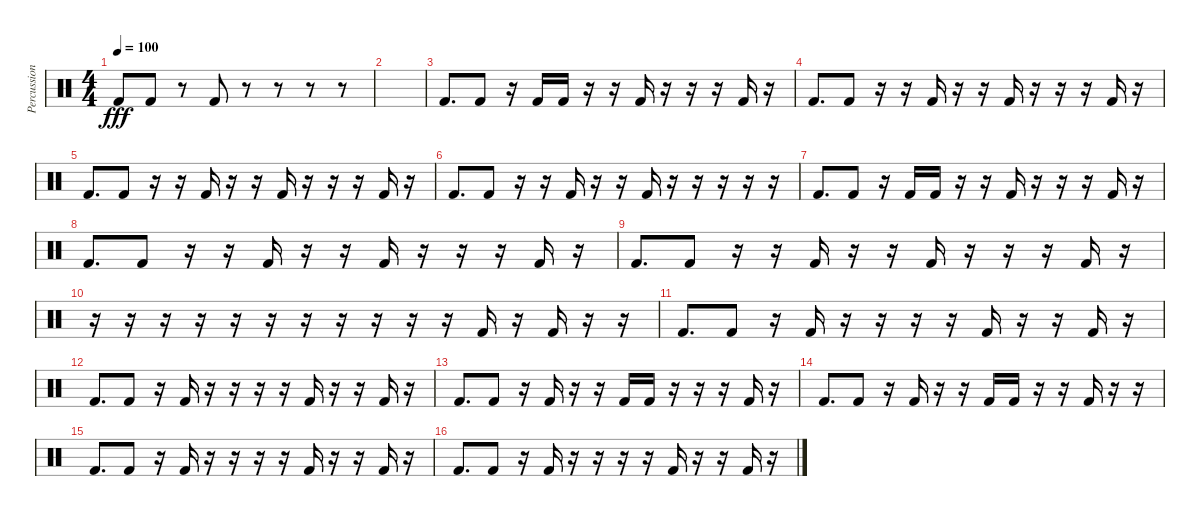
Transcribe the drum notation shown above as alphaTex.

\track ("Percussion" "Percussion") {instrument percussion}
\staff {score}
\articulation defaults
\ts (4 4)
\tempo 100
\clef neutral
\ks c "Kick (hit) 2".8{dy fff} "Kick (hit) 2".8
r.8 "Kick (hit) 2".8 r.8 r.8 r.8 r.8 |
|
"Kick (hit) 2".8{d} "Kick (hit) 2".8 r.16 "Kick (hit) 2".16 "Kick (hit) 2".16 r.16 r.16 "Kick (hit) 2".16 r.16 r.16 r.16 "Kick (hit) 2".16 r.16 |
"Kick (hit) 2".8{d} "Kick (hit) 2".8 r.16 r.16 "Kick (hit) 2".16 r.16 r.16 "Kick (hit) 2".16 r.16 r.16 r.16 "Kick (hit) 2".16 r.16 |
"Kick (hit) 2".8{d} "Kick (hit) 2".8 r.16 r.16 "Kick (hit) 2".16 r.16 r.16 "Kick (hit) 2".16 r.16 r.16 r.16 "Kick (hit) 2".16 r.16 |
"Kick (hit) 2".8{d} "Kick (hit) 2".8 r.16 r.16 "Kick (hit) 2".16 r.16 r.16 "Kick (hit) 2".16 r.16 r.16 r.16 r.16 r.16 |
"Kick (hit) 2".8{d} "Kick (hit) 2".8 r.16 "Kick (hit) 2".16 "Kick (hit) 2".16 r.16 r.16 "Kick (hit) 2".16 r.16 r.16 r.16 "Kick (hit) 2".16 r.16 |
"Kick (hit) 2".8{d} "Kick (hit) 2".8 r.16 r.16 "Kick (hit) 2".16 r.16 r.16 "Kick (hit) 2".16 r.16 r.16 r.16 "Kick (hit) 2".16 r.16 |
"Kick (hit) 2".8{d} "Kick (hit) 2".8 r.16 r.16 "Kick (hit) 2".16 r.16 r.16 "Kick (hit) 2".16 r.16 r.16 r.16 "Kick (hit) 2".16 r.16 |
r.16 r.16 r.16 r.16 r.16 r.16 r.16 r.16 r.16 r.16 r.16 "Kick (hit) 2".16 r.16 "Kick (hit) 2".16 r.16 r.16 |
"Kick (hit) 2".8{d} "Kick (hit) 2".8 r.16 "Kick (hit) 2".16 r.16 r.16 r.16 r.16 "Kick (hit) 2".16 r.16 r.16 "Kick (hit) 2".16 r.16 |
"Kick (hit) 2".8{d} "Kick (hit) 2".8 r.16 "Kick (hit) 2".16 r.16 r.16 r.16 r.16 "Kick (hit) 2".16 r.16 r.16 "Kick (hit) 2".16 r.16 |
"Kick (hit) 2".8{d} "Kick (hit) 2".8 r.16 "Kick (hit) 2".16 r.16 r.16 "Kick (hit) 2".16 "Kick (hit) 2".16 r.16 r.16 r.16 "Kick (hit) 2".16 r.16 |
"Kick (hit) 2".8{d} "Kick (hit) 2".8 r.16 "Kick (hit) 2".16 r.16 r.16 "Kick (hit) 2".16 "Kick (hit) 2".16 r.16 r.16 "Kick (hit) 2".16 r.16 r.16 |
"Kick (hit) 2".8{d} "Kick (hit) 2".8 r.16 "Kick (hit) 2".16 r.16 r.16 r.16 r.16 "Kick (hit) 2".16 r.16 r.16 "Kick (hit) 2".16 r.16 |
"Kick (hit) 2".8{d} "Kick (hit) 2".8 r.16 "Kick (hit) 2".16 r.16 r.16 r.16 r.16 "Kick (hit) 2".16 r.16 r.16 "Kick (hit) 2".16 r.16
